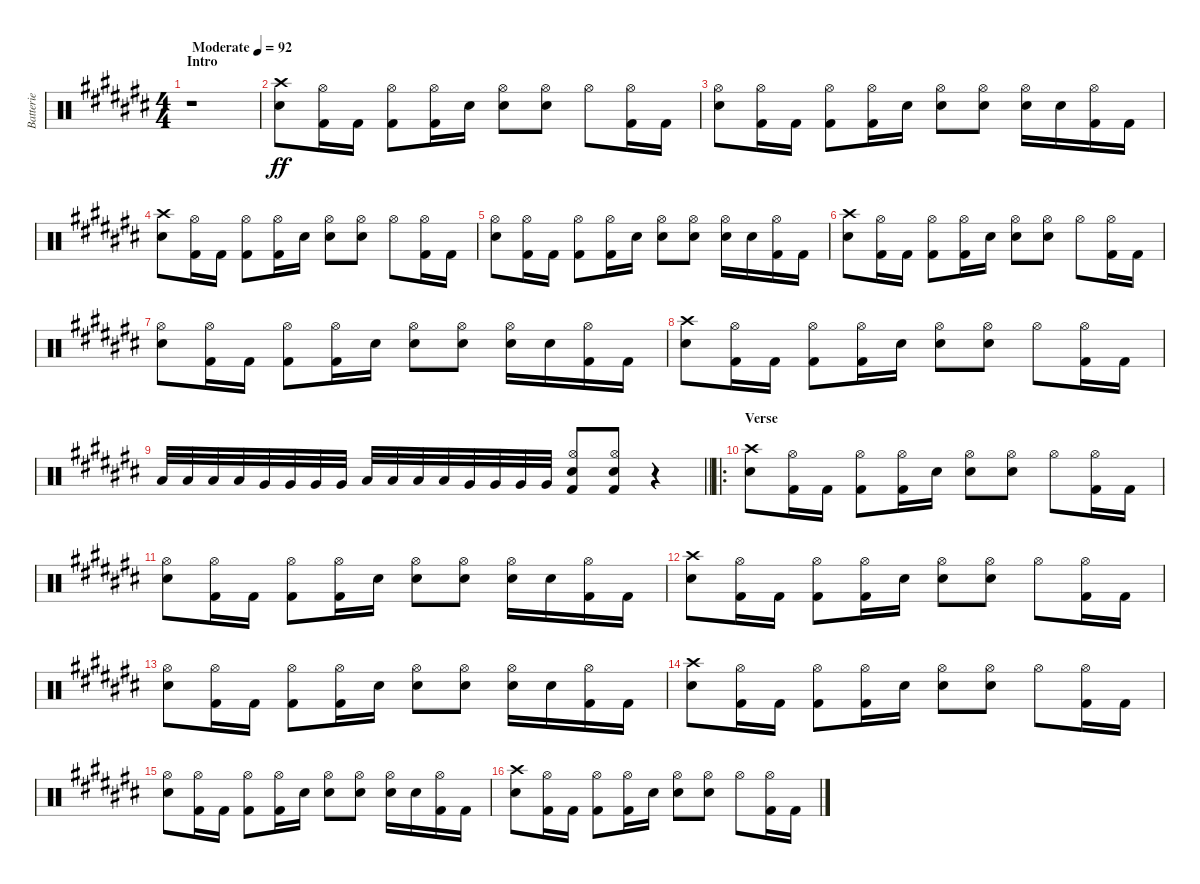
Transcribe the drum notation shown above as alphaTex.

\track ("Batterie" "Batterie") {instrument percussion}
\staff {score}
\articulation defaults
\ts (4 4)
\section ("" "Intro")
\tempo (92 "Moderate")
\clef neutral
\ks c#
r.1{dy ff} |
("Crash high (hit)" "Snare (hit) 2").8 ("Hi-Hat (open)" "Kick (hit) 2").16 "Kick (hit) 2".16 ("Hi-Hat (open)" "Kick (hit) 2").8 ("Hi-Hat (open)" "Kick (hit) 2").16 "Snare (hit) 2".16 ("Hi-Hat (open)" "Snare (hit) 2").8 ("Hi-Hat (open)" "Snare (hit) 2").8 "Hi-Hat (open)".8 ("Hi-Hat (open)" "Kick (hit) 2").16 "Kick (hit) 2".16 |
("Hi-Hat (open)" "Snare (hit) 2").8 ("Hi-Hat (open)" "Kick (hit) 2").16 "Kick (hit) 2".16 ("Hi-Hat (open)" "Kick (hit) 2").8 ("Hi-Hat (open)" "Kick (hit) 2").16 "Snare (hit) 2".16 ("Hi-Hat (open)" "Snare (hit) 2").8 ("Hi-Hat (open)" "Snare (hit) 2").8 ("Hi-Hat (open)" "Snare (hit) 2").16 "Snare (hit) 2".16 ("Hi-Hat (open)" "Kick (hit) 2").16 "Kick (hit) 2".16 |
("Crash high (hit)" "Snare (hit) 2").8 ("Hi-Hat (open)" "Kick (hit) 2").16 "Kick (hit) 2".16 ("Hi-Hat (open)" "Kick (hit) 2").8 ("Hi-Hat (open)" "Kick (hit) 2").16 "Snare (hit) 2".16 ("Hi-Hat (open)" "Snare (hit) 2").8 ("Hi-Hat (open)" "Snare (hit) 2").8 "Hi-Hat (open)".8 ("Hi-Hat (open)" "Kick (hit) 2").16 "Kick (hit) 2".16 |
("Hi-Hat (open)" "Snare (hit) 2").8 ("Hi-Hat (open)" "Kick (hit) 2").16 "Kick (hit) 2".16 ("Hi-Hat (open)" "Kick (hit) 2").8 ("Hi-Hat (open)" "Kick (hit) 2").16 "Snare (hit) 2".16 ("Hi-Hat (open)" "Snare (hit) 2").8 ("Hi-Hat (open)" "Snare (hit) 2").8 ("Hi-Hat (open)" "Snare (hit) 2").16 "Snare (hit) 2".16 ("Hi-Hat (open)" "Kick (hit) 2").16 "Kick (hit) 2".16 |
("Crash high (hit)" "Snare (hit) 2").8 ("Hi-Hat (open)" "Kick (hit) 2").16 "Kick (hit) 2".16 ("Hi-Hat (open)" "Kick (hit) 2").8 ("Hi-Hat (open)" "Kick (hit) 2").16 "Snare (hit) 2".16 ("Hi-Hat (open)" "Snare (hit) 2").8 ("Hi-Hat (open)" "Snare (hit) 2").8 "Hi-Hat (open)".8 ("Hi-Hat (open)" "Kick (hit) 2").16 "Kick (hit) 2".16 |
("Hi-Hat (open)" "Snare (hit) 2").8 ("Hi-Hat (open)" "Kick (hit) 2").16 "Kick (hit) 2".16 ("Hi-Hat (open)" "Kick (hit) 2").8 ("Hi-Hat (open)" "Kick (hit) 2").16 "Snare (hit) 2".16 ("Hi-Hat (open)" "Snare (hit) 2").8 ("Hi-Hat (open)" "Snare (hit) 2").8 ("Hi-Hat (open)" "Snare (hit) 2").16 "Snare (hit) 2".16 ("Hi-Hat (open)" "Kick (hit) 2").16 "Kick (hit) 2".16 |
("Crash high (hit)" "Snare (hit) 2").8 ("Hi-Hat (open)" "Kick (hit) 2").16 "Kick (hit) 2".16 ("Hi-Hat (open)" "Kick (hit) 2").8 ("Hi-Hat (open)" "Kick (hit) 2").16 "Snare (hit) 2".16 ("Hi-Hat (open)" "Snare (hit) 2").8 ("Hi-Hat (open)" "Snare (hit) 2").8 "Hi-Hat (open)".8 ("Hi-Hat (open)" "Kick (hit) 2").16 "Kick (hit) 2".16 |
\barLineRight lightlight "Low Tom (hit)".32 "Low Tom (hit)".32 "Low Tom (hit)".32 "Low Tom (hit)".32 "Very Low Tom (hit)".32 "Very Low Tom (hit)".32 "Very Low Tom (hit)".32 "Very Low Tom (hit)".32 "Low Floor Tom (hit)".32 "Low Floor Tom (hit)".32 "Low Floor Tom (hit)".32 "Low Floor Tom (hit)".32 "Very Low Tom (hit)".32 "Very Low Tom (hit)".32 "Very Low Tom (hit)".32 "Very Low Tom (hit)".32
("Hi-Hat (open)" "Snare (hit) 2" "Kick (hit) 2").8 ("Hi-Hat (open)" "Snare (hit) 2" "Kick (hit) 2").8 r.4 |
\ro
\section ("" "Verse")
("Crash high (hit)" "Snare (hit) 2").8 ("Hi-Hat (open)" "Kick (hit) 2").16 "Kick (hit) 2".16 ("Hi-Hat (open)" "Kick (hit) 2").8 ("Hi-Hat (open)" "Kick (hit) 2").16 "Snare (hit) 2".16 ("Hi-Hat (open)" "Snare (hit) 2").8 ("Hi-Hat (open)" "Snare (hit) 2").8 "Hi-Hat (open)".8 ("Hi-Hat (open)" "Kick (hit) 2").16 "Kick (hit) 2".16 |
("Hi-Hat (open)" "Snare (hit) 2").8 ("Hi-Hat (open)" "Kick (hit) 2").16 "Kick (hit) 2".16 ("Hi-Hat (open)" "Kick (hit) 2").8 ("Hi-Hat (open)" "Kick (hit) 2").16 "Snare (hit) 2".16 ("Hi-Hat (open)" "Snare (hit) 2").8 ("Hi-Hat (open)" "Snare (hit) 2").8 ("Hi-Hat (open)" "Snare (hit) 2").16 "Snare (hit) 2".16 ("Hi-Hat (open)" "Kick (hit) 2").16 "Kick (hit) 2".16 |
("Crash high (hit)" "Snare (hit) 2").8 ("Hi-Hat (open)" "Kick (hit) 2").16 "Kick (hit) 2".16 ("Hi-Hat (open)" "Kick (hit) 2").8 ("Hi-Hat (open)" "Kick (hit) 2").16 "Snare (hit) 2".16 ("Hi-Hat (open)" "Snare (hit) 2").8 ("Hi-Hat (open)" "Snare (hit) 2").8 "Hi-Hat (open)".8 ("Hi-Hat (open)" "Kick (hit) 2").16 "Kick (hit) 2".16 |
("Hi-Hat (open)" "Snare (hit) 2").8 ("Hi-Hat (open)" "Kick (hit) 2").16 "Kick (hit) 2".16 ("Hi-Hat (open)" "Kick (hit) 2").8 ("Hi-Hat (open)" "Kick (hit) 2").16 "Snare (hit) 2".16 ("Hi-Hat (open)" "Snare (hit) 2").8 ("Hi-Hat (open)" "Snare (hit) 2").8 ("Hi-Hat (open)" "Snare (hit) 2").16 "Snare (hit) 2".16 ("Hi-Hat (open)" "Kick (hit) 2").16 "Kick (hit) 2".16 |
("Crash high (hit)" "Snare (hit) 2").8 ("Hi-Hat (open)" "Kick (hit) 2").16 "Kick (hit) 2".16 ("Hi-Hat (open)" "Kick (hit) 2").8 ("Hi-Hat (open)" "Kick (hit) 2").16 "Snare (hit) 2".16 ("Hi-Hat (open)" "Snare (hit) 2").8 ("Hi-Hat (open)" "Snare (hit) 2").8 "Hi-Hat (open)".8 ("Hi-Hat (open)" "Kick (hit) 2").16 "Kick (hit) 2".16 |
("Hi-Hat (open)" "Snare (hit) 2").8 ("Hi-Hat (open)" "Kick (hit) 2").16 "Kick (hit) 2".16 ("Hi-Hat (open)" "Kick (hit) 2").8 ("Hi-Hat (open)" "Kick (hit) 2").16 "Snare (hit) 2".16 ("Hi-Hat (open)" "Snare (hit) 2").8 ("Hi-Hat (open)" "Snare (hit) 2").8 ("Hi-Hat (open)" "Snare (hit) 2").16 "Snare (hit) 2".16 ("Hi-Hat (open)" "Kick (hit) 2").16 "Kick (hit) 2".16 |
("Crash high (hit)" "Snare (hit) 2").8 ("Hi-Hat (open)" "Kick (hit) 2").16 "Kick (hit) 2".16 ("Hi-Hat (open)" "Kick (hit) 2").8 ("Hi-Hat (open)" "Kick (hit) 2").16 "Snare (hit) 2".16 ("Hi-Hat (open)" "Snare (hit) 2").8 ("Hi-Hat (open)" "Snare (hit) 2").8 "Hi-Hat (open)".8 ("Hi-Hat (open)" "Kick (hit) 2").16 "Kick (hit) 2".16
